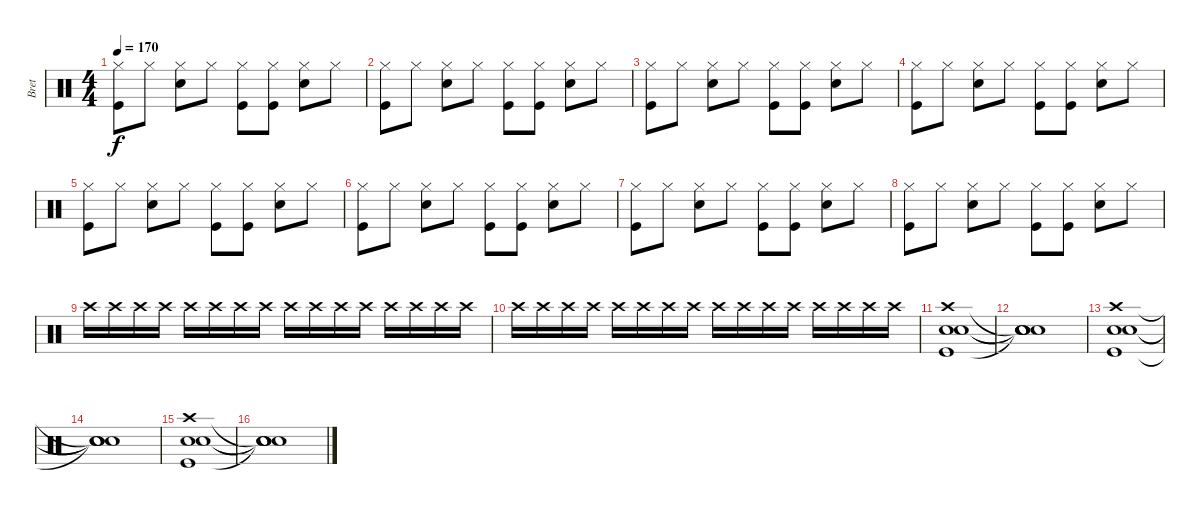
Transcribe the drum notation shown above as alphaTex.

\track ("Bret" "Bret") {instrument percussion}
\staff {score}
\articulation defaults
\ts (4 4)
\tempo 170
\clef neutral
\ks c
("Hi-Hat (closed)" "Kick (hit)").8{dy f} "Hi-Hat (closed)".8 ("Hi-Hat (closed)" "Electric Snare (hit)").8 "Hi-Hat (closed)".8 ("Hi-Hat (closed)" "Kick (hit)").8 ("Hi-Hat (closed)" "Kick (hit)").8 ("Hi-Hat (closed)" "Electric Snare (hit)").8 "Hi-Hat (closed)".8 |
("Hi-Hat (closed)" "Kick (hit)").8 "Hi-Hat (closed)".8 ("Hi-Hat (closed)" "Electric Snare (hit)").8 "Hi-Hat (closed)".8 ("Hi-Hat (closed)" "Kick (hit)").8 ("Hi-Hat (closed)" "Kick (hit)").8 ("Hi-Hat (closed)" "Electric Snare (hit)").8 "Hi-Hat (closed)".8 |
("Hi-Hat (closed)" "Kick (hit)").8 "Hi-Hat (closed)".8 ("Hi-Hat (closed)" "Electric Snare (hit)").8 "Hi-Hat (closed)".8 ("Hi-Hat (closed)" "Kick (hit)").8 ("Hi-Hat (closed)" "Kick (hit)").8 ("Hi-Hat (closed)" "Electric Snare (hit)").8 "Hi-Hat (closed)".8 |
("Hi-Hat (closed)" "Kick (hit)").8 "Hi-Hat (closed)".8 ("Hi-Hat (closed)" "Electric Snare (hit)").8 "Hi-Hat (closed)".8 ("Hi-Hat (closed)" "Kick (hit)").8 ("Hi-Hat (closed)" "Kick (hit)").8 ("Hi-Hat (closed)" "Electric Snare (hit)").8 "Hi-Hat (closed)".8 |
("Hi-Hat (closed)" "Kick (hit)").8 "Hi-Hat (closed)".8 ("Hi-Hat (closed)" "Electric Snare (hit)").8 "Hi-Hat (closed)".8 ("Hi-Hat (closed)" "Kick (hit)").8 ("Hi-Hat (closed)" "Kick (hit)").8 ("Hi-Hat (closed)" "Electric Snare (hit)").8 "Hi-Hat (closed)".8 |
("Hi-Hat (closed)" "Kick (hit)").8 "Hi-Hat (closed)".8 ("Hi-Hat (closed)" "Electric Snare (hit)").8 "Hi-Hat (closed)".8 ("Hi-Hat (closed)" "Kick (hit)").8 ("Hi-Hat (closed)" "Kick (hit)").8 ("Hi-Hat (closed)" "Electric Snare (hit)").8 "Hi-Hat (closed)".8 |
("Hi-Hat (closed)" "Kick (hit)").8 "Hi-Hat (closed)".8 ("Hi-Hat (closed)" "Electric Snare (hit)").8 "Hi-Hat (closed)".8 ("Hi-Hat (closed)" "Kick (hit)").8 ("Hi-Hat (closed)" "Kick (hit)").8 ("Hi-Hat (closed)" "Electric Snare (hit)").8 "Hi-Hat (closed)".8 |
("Hi-Hat (closed)" "Kick (hit)").8 "Hi-Hat (closed)".8 ("Hi-Hat (closed)" "Electric Snare (hit)").8 "Hi-Hat (closed)".8 ("Hi-Hat (closed)" "Kick (hit)").8 ("Hi-Hat (closed)" "Kick (hit)").8 ("Hi-Hat (closed)" "Electric Snare (hit)").8 "Hi-Hat (closed)".8 |
"Crash high (hit)".16 "Crash high (hit)".16 "Crash high (hit)".16 "Crash high (hit)".16 "Crash high (hit)".16 "Crash high (hit)".16 "Crash high (hit)".16 "Crash high (hit)".16 "Crash high (hit)".16 "Crash high (hit)".16 "Crash high (hit)".16 "Crash high (hit)".16 "Crash high (hit)".16 "Crash high (hit)".16 "Crash high (hit)".16 "Crash high (hit)".16 |
"Crash high (hit)".16 "Crash high (hit)".16 "Crash high (hit)".16 "Crash high (hit)".16 "Crash high (hit)".16 "Crash high (hit)".16 "Crash high (hit)".16 "Crash high (hit)".16 "Crash high (hit)".16 "Crash high (hit)".16 "Crash high (hit)".16 "Crash high (hit)".16 "Crash high (hit)".16 "Crash high (hit)".16 "Crash high (hit)".16 "Crash high (hit)".16 |
("Crash high (hit)" "Snare (hit) 2" "Electric Snare (hit)" "Kick (hit)").1 |
("Snare (hit)"{t} "Snare (hit)"{t} "Snare (hit)"{t} "Snare (hit)"{t}).1 |
("Crash high (hit)" "Snare (hit) 2" "Electric Snare (hit)" "Kick (hit)").1 |
("Snare (hit)"{t} "Snare (hit)"{t} "Snare (hit)"{t} "Snare (hit)"{t}).1 |
("Crash high (hit)" "Snare (hit) 2" "Electric Snare (hit)" "Kick (hit)").1 |
("Snare (hit)"{t} "Snare (hit)"{t} "Snare (hit)"{t} "Snare (hit)"{t}).1
